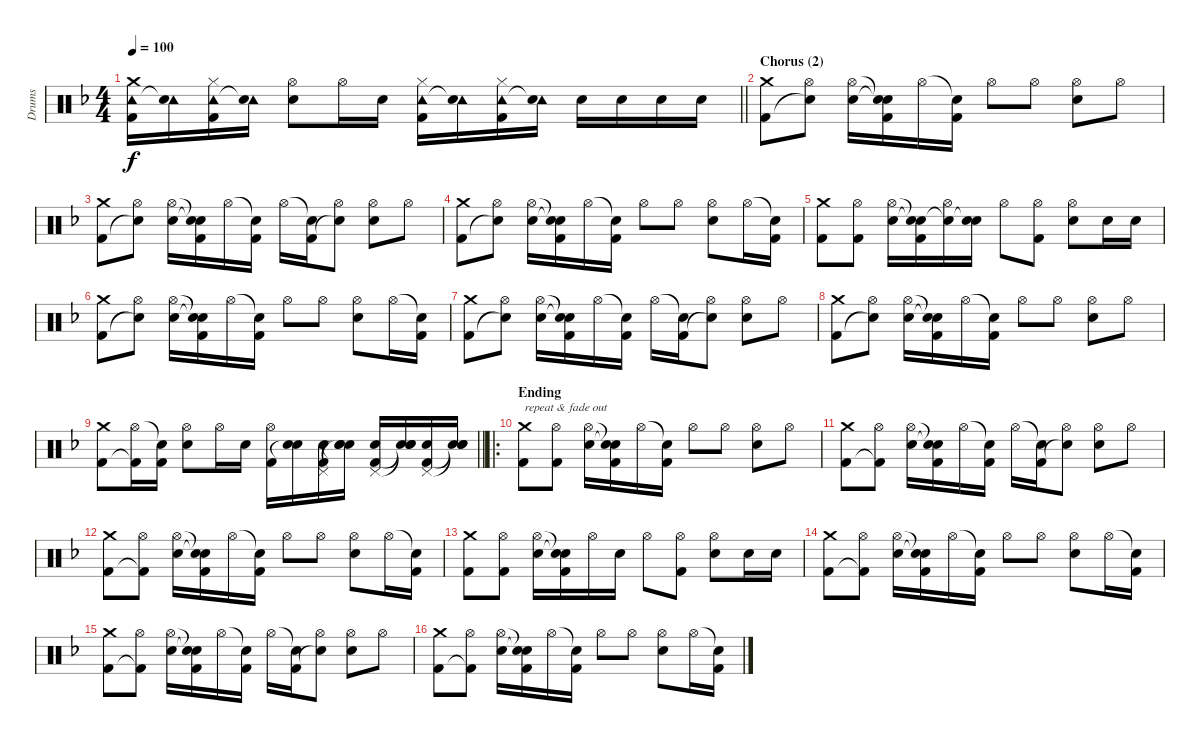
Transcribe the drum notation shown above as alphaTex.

\track ("Drums" "Drums") {instrument percussion}
\staff {score}
\articulation defaults
\ts (4 4)
\tempo 100
\clef neutral
\barLineRight lightlight
\ks dminor
("Crash medium (hit)" "Tambourine (hit)" "Kick (hit) 2").16{dy f} ("Tambourine (hit)" "Snare (hit)"{t}).16 ("Hi-Hat (closed)" "Tambourine (hit)" "Kick (hit) 2").16 ("Tambourine (hit)" "Snare (hit)"{t}).16 ("Hi-Hat (open)" "Electric Snare (hit)").8 "Hi-Hat (open)".16 "Electric Snare (hit)".16 ("Hi-Hat (closed)" "Tambourine (hit)" "Kick (hit) 2").16 ("Tambourine (hit)" "Snare (hit)"{t}).16 ("Hi-Hat (closed)" "Tambourine (hit)" "Kick (hit) 2").16 ("Tambourine (hit)" "Snare (hit)"{t}).16 "Electric Snare (hit)".16 "Electric Snare (hit)".16 "Electric Snare (hit)".16 "Electric Snare (hit)".16 |
\section ("" "Chorus (2)")
("Crash medium (hit)" "Kick (hit) 2").8 ("Hi-Hat (open)" "Snare (hit)"{t}).8 ("Hi-Hat (open)" "Electric Snare (hit)").16 ("Snare (hit)"{t} "Snare (hit)"{t} "Kick (hit) 2").16 "Hi-Hat (open)".16 ("Snare (hit)"{t} "Kick (hit) 2").16 "Hi-Hat (open)".8 "Hi-Hat (open)".8 ("Hi-Hat (open)" "Electric Snare (hit)").8 "Hi-Hat (open)".8 |
("Crash medium (hit)" "Kick (hit) 2").8 ("Hi-Hat (open)" "Snare (hit)"{t}).8 ("Hi-Hat (open)" "Electric Snare (hit)").16 ("Snare (hit)"{t} "Snare (hit)"{t} "Kick (hit) 2").16 "Hi-Hat (open)".16 ("Snare (hit)"{t} "Kick (hit) 2").16 "Hi-Hat (open)".16 ("Snare (hit)"{t} "Kick (hit) 2").16 ("Hi-Hat (open)" "Snare (hit)"{t}).8 ("Hi-Hat (open)" "Electric Snare (hit)").8 "Hi-Hat (open)".8 |
("Crash medium (hit)" "Kick (hit) 2").8 ("Hi-Hat (open)" "Snare (hit)"{t}).8 ("Hi-Hat (open)" "Electric Snare (hit)").16 ("Snare (hit)"{t} "Snare (hit)"{t} "Kick (hit) 2").16 "Hi-Hat (open)".16 ("Snare (hit)"{t} "Kick (hit) 2").16 "Hi-Hat (open)".8 "Hi-Hat (open)".8 ("Hi-Hat (open)" "Electric Snare (hit)").8 "Hi-Hat (open)".16 ("Snare (hit)"{t} "Kick (hit) 2").16 |
("Crash medium (hit)" "Kick (hit) 2").8 ("Hi-Hat (open)" "Kick (hit) 2").8 ("Hi-Hat (open)" "Electric Snare (hit)").16 ("Snare (hit)"{t} "Snare (hit)"{t} "Kick (hit) 2").16 ("Hi-Hat (open)" "Snare (hit)"{t}).16 ("Electric Snare (hit)" "Snare (hit)"{t}).16 "Hi-Hat (open)".8 ("Hi-Hat (open)" "Kick (hit) 2").8 ("Hi-Hat (open)" "Electric Snare (hit)").8 "Electric Snare (hit)".16 "Electric Snare (hit)".16 |
("Crash medium (hit)" "Kick (hit) 2").8 ("Hi-Hat (open)" "Snare (hit)"{t}).8 ("Hi-Hat (open)" "Electric Snare (hit)").16 ("Snare (hit)"{t} "Snare (hit)"{t} "Kick (hit) 2").16 "Hi-Hat (open)".16 ("Snare (hit)"{t} "Kick (hit) 2").16 "Hi-Hat (open)".8 "Hi-Hat (open)".8 ("Hi-Hat (open)" "Electric Snare (hit)").8 "Hi-Hat (open)".16 ("Snare (hit)"{t} "Kick (hit) 2").16 |
("Crash medium (hit)" "Kick (hit) 2").8 ("Hi-Hat (open)" "Snare (hit)"{t}).8 ("Hi-Hat (open)" "Electric Snare (hit)").16 ("Snare (hit)"{t} "Snare (hit)"{t} "Kick (hit) 2").16 "Hi-Hat (open)".16 ("Snare (hit)"{t} "Kick (hit) 2").16 "Hi-Hat (open)".16 ("Snare (hit)"{t} "Kick (hit) 2").16 ("Hi-Hat (open)" "Snare (hit)"{t}).8 ("Hi-Hat (open)" "Electric Snare (hit)").8 "Hi-Hat (open)".8 |
("Crash medium (hit)" "Kick (hit) 2").8 ("Hi-Hat (open)" "Snare (hit)"{t}).8 ("Hi-Hat (open)" "Electric Snare (hit)").16 ("Snare (hit)"{t} "Snare (hit)"{t} "Kick (hit) 2").16 "Hi-Hat (open)".16 ("Snare (hit)"{t} "Kick (hit) 2").16 "Hi-Hat (open)".8 "Hi-Hat (open)".8 ("Hi-Hat (open)" "Electric Snare (hit)").8 "Hi-Hat (open)".8 |
\barLineRight lightlight
("Crash medium (hit)" "Kick (hit) 2").8 ("Hi-Hat (open)" "Kick (hit) 2"{t}).16 ("Snare (hit)"{t} "Kick (hit) 2").16 ("Hi-Hat (open)" "Electric Snare (hit)").8 "Hi-Hat (open)".16 "Electric Snare (hit)".16 ("Hi-Hat (open)" "Kick (hit) 2").16 ("Electric Snare (hit)" "Snare (hit)"{t}).16 ("Pedal Hi-Hat (hit)" "Electric Snare (hit)" "Kick (hit) 2").16 ("Snare (hit)"{t} "Electric Snare (hit)" "Snare (hit)"{t}).16 ("Pedal Hi-Hat (hit)" "Electric Snare (hit)" "Kick (hit) 2").16 ("Snare (hit)"{t} "Electric Snare (hit)" "Snare (hit)"{t}).16 ("Pedal Hi-Hat (hit)" "Electric Snare (hit)" "Kick (hit) 2").16 ("Snare (hit)"{t} "Electric Snare (hit)" "Snare (hit)"{t}).16 |
\ro
\section ("" "Ending")
("Crash medium (hit)" "Kick (hit) 2").8{txt "repeat & fade out"} ("Hi-Hat (open)" "Kick (hit) 2").8 ("Hi-Hat (open)" "Electric Snare (hit)").16 ("Snare (hit)"{t} "Snare (hit)"{t} "Kick (hit) 2").16 "Hi-Hat (open)".16 ("Snare (hit)"{t} "Kick (hit) 2").16 "Hi-Hat (open)".8 "Hi-Hat (open)".8 ("Hi-Hat (open)" "Electric Snare (hit)").8 "Hi-Hat (open)".8 |
("Crash medium (hit)" "Kick (hit) 2").8 ("Hi-Hat (open)" "Kick (hit) 2"{t}).8 ("Hi-Hat (open)" "Electric Snare (hit)").16 ("Snare (hit)"{t} "Snare (hit)"{t} "Kick (hit) 2").16 "Hi-Hat (open)".16 ("Snare (hit)"{t} "Kick (hit) 2").16 "Hi-Hat (open)".16 ("Snare (hit)"{t} "Kick (hit) 2").16 ("Hi-Hat (open)" "Snare (hit)"{t}).8 ("Hi-Hat (open)" "Electric Snare (hit)").8 "Hi-Hat (open)".8 |
("Crash medium (hit)" "Kick (hit) 2").8 ("Hi-Hat (open)" "Kick (hit) 2"{t}).8 ("Hi-Hat (open)" "Electric Snare (hit)").16 ("Snare (hit)"{t} "Snare (hit)"{t} "Kick (hit) 2").16 "Hi-Hat (open)".16 ("Snare (hit)"{t} "Kick (hit) 2").16 "Hi-Hat (open)".8 "Hi-Hat (open)".8 ("Hi-Hat (open)" "Electric Snare (hit)").8 "Hi-Hat (open)".16 ("Snare (hit)"{t} "Kick (hit) 2").16 |
("Crash medium (hit)" "Kick (hit) 2").8 ("Hi-Hat (open)" "Kick (hit) 2").8 ("Hi-Hat (open)" "Electric Snare (hit)").16 ("Snare (hit)"{t} "Snare (hit)"{t} "Kick (hit) 2").16 "Hi-Hat (open)".16 "Electric Snare (hit)".16 "Hi-Hat (open)".8 ("Hi-Hat (open)" "Kick (hit) 2").8 ("Hi-Hat (open)" "Electric Snare (hit)").8 "Electric Snare (hit)".16 "Electric Snare (hit)".16 |
("Crash medium (hit)" "Kick (hit) 2").8 ("Hi-Hat (open)" "Kick (hit) 2"{t}).8 ("Hi-Hat (open)" "Electric Snare (hit)").16 ("Snare (hit)"{t} "Snare (hit)"{t} "Kick (hit) 2").16 "Hi-Hat (open)".16 ("Snare (hit)"{t} "Kick (hit) 2").16 "Hi-Hat (open)".8 "Hi-Hat (open)".8 ("Hi-Hat (open)" "Electric Snare (hit)").8 "Hi-Hat (open)".16 ("Snare (hit)"{t} "Kick (hit) 2").16 |
("Crash medium (hit)" "Kick (hit) 2").8 ("Hi-Hat (open)" "Kick (hit) 2"{t}).8 ("Hi-Hat (open)" "Electric Snare (hit)").16 ("Snare (hit)"{t} "Snare (hit)"{t} "Kick (hit) 2").16 "Hi-Hat (open)".16 ("Snare (hit)"{t} "Kick (hit) 2").16 "Hi-Hat (open)".16 ("Snare (hit)"{t} "Kick (hit) 2").16 ("Hi-Hat (open)" "Snare (hit)"{t}).8 ("Hi-Hat (open)" "Electric Snare (hit)").8 "Hi-Hat (open)".8 |
("Crash medium (hit)" "Kick (hit) 2").8 ("Hi-Hat (open)" "Kick (hit) 2"{t}).8 ("Hi-Hat (open)" "Electric Snare (hit)").16 ("Snare (hit)"{t} "Snare (hit)"{t} "Kick (hit) 2").16 "Hi-Hat (open)".16 ("Snare (hit)"{t} "Kick (hit) 2").16 "Hi-Hat (open)".8 "Hi-Hat (open)".8 ("Hi-Hat (open)" "Electric Snare (hit)").8 "Hi-Hat (open)".16 ("Snare (hit)"{t} "Kick (hit) 2").16
